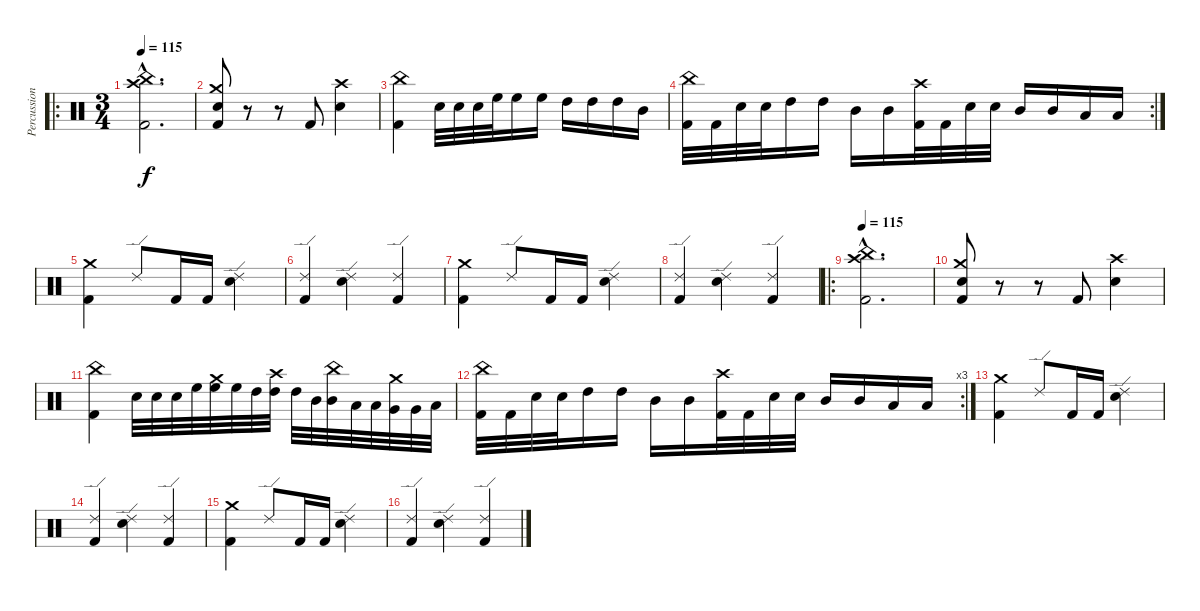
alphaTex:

\track ("Percussion" "Percussion") {instrument percussion}
\staff {score}
\articulation defaults
\ro
\ts (3 4)
\tempo 115
\clef neutral
\ks c
("China (hit)"{hac} "Crash high (hit)"{hac} "Kick (hit) 2"{hac}).2{d dy f} |
("Crash medium (hit)" "Electric Snare (hit)" "Kick (hit) 2").8 r.8 r.8 "Kick (hit) 2".8 ("Crash high (hit)" "Electric Snare (hit)").4 |
("China (hit)" "Kick (hit) 2").4 "Electric Snare (hit)".32 "Electric Snare (hit)".32 "Electric Snare (hit)".32 "High Floor Tom (hit)".32 "High Floor Tom (hit)".16 "High Floor Tom (hit)".16 "High Tom (hit)".16 "High Tom (hit)".16 "High Tom (hit)".16 "Mid Tom (hit)".16 |
\rc 2
("China (hit)" "Kick (hit) 2").32 "Kick (hit) 2".32 "Electric Snare (hit)".32 "Electric Snare (hit)".32 "High Tom (hit)".16 "High Tom (hit)".16 "Mid Tom (hit)".16 "Mid Tom (hit)".16 ("Crash high (hit)" "Kick (hit) 2").32 "Kick (hit) 2".32 "Electric Snare (hit)".32 "Electric Snare (hit)".32 "Mid Tom (hit)".16 "Mid Tom (hit)".16 "Low Tom (hit)".16 "Low Tom (hit)".16 |
("Crash medium (hit)" "Kick (hit) 2").4 "Ride (edge) 2".8 "Kick (hit) 2".16 "Kick (hit) 2".16 ("Ride (edge) 2" "Electric Snare (hit)").4 |
("Ride (edge) 2" "Kick (hit) 2").4 ("Ride (edge) 2" "Electric Snare (hit)").4 ("Ride (edge) 2" "Kick (hit) 2").4 |
("Crash medium (hit)" "Kick (hit) 2").4 "Ride (edge) 2".8 "Kick (hit) 2".16 "Kick (hit) 2".16 ("Ride (edge) 2" "Electric Snare (hit)").4 |
("Ride (edge) 2" "Kick (hit) 2").4 ("Ride (edge) 2" "Electric Snare (hit)").4 ("Ride (edge) 2" "Kick (hit) 2").4 |
\ro
\tempo 115
("China (hit)"{hac} "Crash high (hit)"{hac} "Kick (hit) 2"{hac}).2{d} |
("Crash medium (hit)" "Electric Snare (hit)" "Kick (hit) 2").8 r.8 r.8 "Kick (hit) 2".8 ("Crash high (hit)" "Electric Snare (hit)").4 |
("China (hit)" "Kick (hit) 2").4 "Electric Snare (hit)".32 "Electric Snare (hit)".32 "Electric Snare (hit)".32 "High Floor Tom (hit)".32 ("Crash medium (hit)" "High Floor Tom (hit)").32 "High Floor Tom (hit)".32 "High Tom (hit)".32 ("Crash high (hit)" "High Tom (hit)").32 "High Tom (hit)".32 "Mid Tom (hit)".32 ("China (hit)" "Mid Tom (hit)").32 "Low Tom (hit)".32 "Low Tom (hit)".32 ("Crash medium (hit)" "Very Low Tom (hit)").32 "Very Low Tom (hit)".32 "Low Floor Tom (hit)".32 |
\rc 3
("China (hit)" "Kick (hit) 2").32 "Kick (hit) 2".32 "Electric Snare (hit)".32 "Electric Snare (hit)".32 "High Tom (hit)".16 "High Tom (hit)".16 "Mid Tom (hit)".16 "Mid Tom (hit)".16 ("Crash high (hit)" "Kick (hit) 2").32 "Kick (hit) 2".32 "Electric Snare (hit)".32 "Electric Snare (hit)".32 "Mid Tom (hit)".16 "Mid Tom (hit)".16 "Low Tom (hit)".16 "Low Tom (hit)".16 |
("Crash medium (hit)" "Kick (hit) 2").4 "Ride (edge) 2".8 "Kick (hit) 2".16 "Kick (hit) 2".16 ("Ride (edge) 2" "Electric Snare (hit)").4 |
("Ride (edge) 2" "Kick (hit) 2").4 ("Ride (edge) 2" "Electric Snare (hit)").4 ("Ride (edge) 2" "Kick (hit) 2").4 |
("Crash medium (hit)" "Kick (hit) 2").4 "Ride (edge) 2".8 "Kick (hit) 2".16 "Kick (hit) 2".16 ("Ride (edge) 2" "Electric Snare (hit)").4 |
("Ride (edge) 2" "Kick (hit) 2").4 ("Ride (edge) 2" "Electric Snare (hit)").4 ("Ride (edge) 2" "Kick (hit) 2").4
